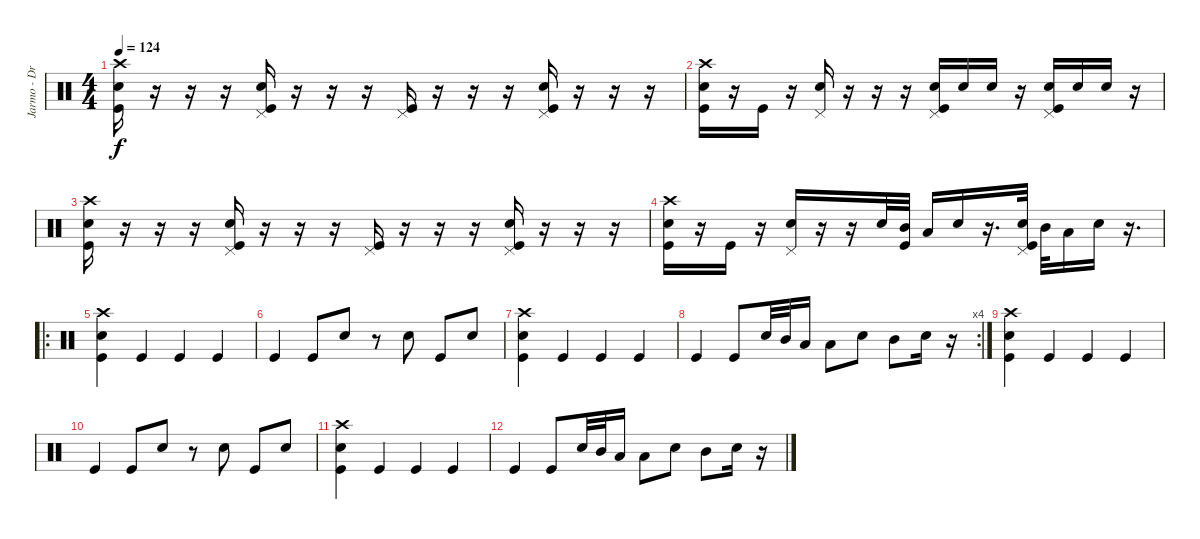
\track ("Jarmo - Drums" "Jarmo - Dr") {instrument percussion}
\staff {score}
\articulation defaults
\ts (4 4)
\tempo 124
\clef neutral
\ks c
("Kick (hit)" "Electric Snare (hit)" "Crash high (hit)").16{dy f} r.16 r.16 r.16 ("Kick (hit)" "Electric Snare (hit)" "Pedal Hi-Hat (hit)").16 r.16 r.16 r.16 ("Kick (hit)" "Pedal Hi-Hat (hit)").16 r.16 r.16 r.16 ("Kick (hit)" "Electric Snare (hit)" "Pedal Hi-Hat (hit)").16 r.16 r.16 r.16 |
("Kick (hit)" "Electric Snare (hit)" "Crash high (hit)").16 r.16 "Kick (hit)".16 r.16 ("Electric Snare (hit)" "Pedal Hi-Hat (hit)").16 r.16 r.16 r.16 ("Kick (hit)" "Electric Snare (hit)" "Pedal Hi-Hat (hit)").16 "Electric Snare (hit)".16 "Electric Snare (hit)".16 r.16 ("Kick (hit)" "Electric Snare (hit)" "Pedal Hi-Hat (hit)").16 "Electric Snare (hit)".16 "Electric Snare (hit)".16 r.16 |
("Kick (hit)" "Electric Snare (hit)" "Crash high (hit)").16 r.16 r.16 r.16 ("Kick (hit)" "Electric Snare (hit)" "Pedal Hi-Hat (hit)").16 r.16 r.16 r.16 ("Kick (hit)" "Pedal Hi-Hat (hit)").16 r.16 r.16 r.16 ("Kick (hit)" "Electric Snare (hit)" "Pedal Hi-Hat (hit)").16 r.16 r.16 r.16 |
("Kick (hit)" "Electric Snare (hit)" "Crash high (hit)").16 r.16 "Kick (hit)".16 r.16 ("Electric Snare (hit)" "Pedal Hi-Hat (hit)").16 r.16 r.16 "Electric Snare (hit)".32 ("Kick (hit)" "Mid Tom (hit)").32 "Low Tom (hit)".16 "Electric Snare (hit)".16 r.16{d} ("Kick (hit)" "Electric Snare (hit)" "Pedal Hi-Hat (hit)").32 "Mid Tom (hit)".32 "Low Tom (hit)".16 "Electric Snare (hit)".16 r.16{d} |
\ro
("Crash high (hit)" "Electric Snare (hit)" "Kick (hit)").4 "Kick (hit)".4 "Kick (hit)".4 "Kick (hit)".4 |
"Kick (hit)".4 "Kick (hit)".8 "Electric Snare (hit)".8 r.8 "Electric Snare (hit)".8 "Kick (hit)".8 "Electric Snare (hit)".8 |
("Crash high (hit)" "Electric Snare (hit)" "Kick (hit)").4 "Kick (hit)".4 "Kick (hit)".4 "Kick (hit)".4 |
\rc 4 "Kick (hit)".4 "Kick (hit)".8 "Electric Snare (hit)".32 "Mid Tom (hit)".32 "Low Tom (hit)".16 "Low Tom (hit)".8 "Electric Snare (hit)".8 "Mid Tom (hit)".8 "Electric Snare (hit)".16
r.16 |
("Crash high (hit)" "Electric Snare (hit)" "Kick (hit)").4 "Kick (hit)".4 "Kick (hit)".4 "Kick (hit)".4 |
"Kick (hit)".4 "Kick (hit)".8 "Electric Snare (hit)".8 r.8 "Electric Snare (hit)".8 "Kick (hit)".8 "Electric Snare (hit)".8 |
("Crash high (hit)" "Electric Snare (hit)" "Kick (hit)").4 "Kick (hit)".4 "Kick (hit)".4 "Kick (hit)".4 |
"Kick (hit)".4 "Kick (hit)".8 "Electric Snare (hit)".32 "Mid Tom (hit)".32 "Low Tom (hit)".16 "Low Tom (hit)".8 "Electric Snare (hit)".8 "Mid Tom (hit)".8 "Electric Snare (hit)".16 r.16
